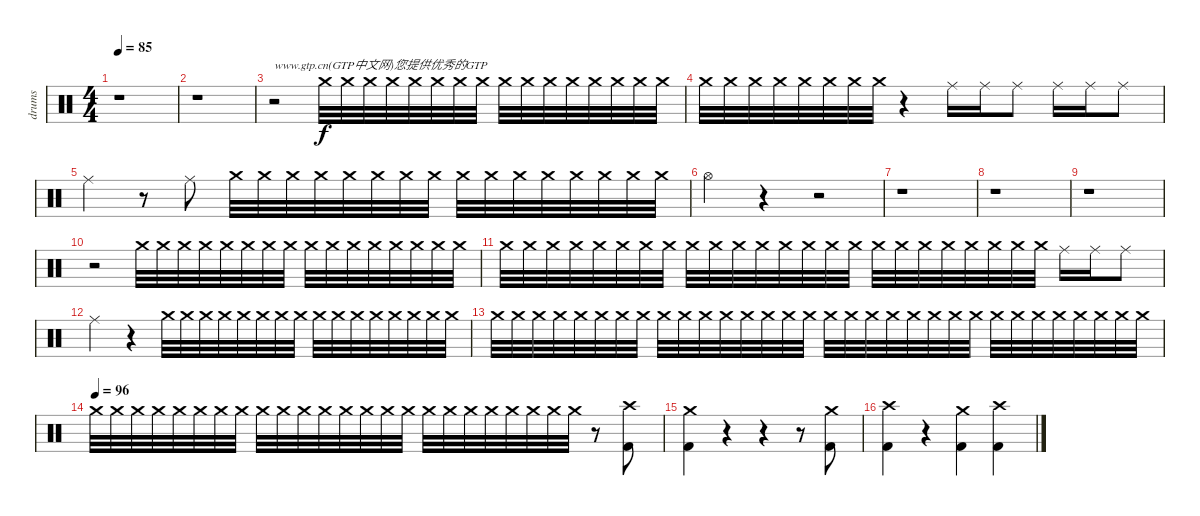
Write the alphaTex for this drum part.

\track ("drums" "drums") {instrument percussion}
\staff {score}
\articulation defaults
\ts (4 4)
\tempo 85
\tempo 80
\tempo 85
\clef neutral
\ks c
r.1{dy f} |
r.1 |
r.2{txt "www.gtp.cn(GTP中文网)您提供优秀的GTP"} "Crash medium (hit)".32 "Crash medium (hit)".32 "Crash medium (hit)".32 "Crash medium (hit)".32 "Crash medium (hit)".32 "Crash medium (hit)".32 "Crash medium (hit)".32 "Crash medium (hit)".32 "Crash medium (hit)".32 "Crash medium (hit)".32 "Crash medium (hit)".32 "Crash medium (hit)".32 "Crash medium (hit)".32 "Crash medium (hit)".32 "Crash medium (hit)".32 "Crash medium (hit)".32 |
"Crash medium (hit)".32 "Crash medium (hit)".32 "Crash medium (hit)".32 "Crash medium (hit)".32 "Crash medium (hit)".32 "Crash medium (hit)".32 "Crash medium (hit)".32 "Crash medium (hit)".32 r.4 "Ride (middle)".16 "Ride (middle)".16 "Ride (middle)".8 "Ride (middle)".16 "Ride (middle)".16 "Ride (middle)".8 |
"Ride (middle)".4 r.8 "Ride (middle)".8 "Crash medium (hit)".32 "Crash medium (hit)".32 "Crash medium (hit)".32 "Crash medium (hit)".32 "Crash medium (hit)".32 "Crash medium (hit)".32 "Crash medium (hit)".32 "Crash medium (hit)".32 "Crash medium (hit)".32 "Crash medium (hit)".32 "Crash medium (hit)".32 "Crash medium (hit)".32 "Crash medium (hit)".32 "Crash medium (hit)".32 "Crash medium (hit)".32 "Crash medium (hit)".32 |
"Hi-Hat (open)".4 r.4 r.2 |
r.1 |
r.1 |
r.1 |
r.2 "Crash medium (hit)".32 "Crash medium (hit)".32 "Crash medium (hit)".32 "Crash medium (hit)".32 "Crash medium (hit)".32 "Crash medium (hit)".32 "Crash medium (hit)".32 "Crash medium (hit)".32 "Crash medium (hit)".32 "Crash medium (hit)".32 "Crash medium (hit)".32 "Crash medium (hit)".32 "Crash medium (hit)".32 "Crash medium (hit)".32 "Crash medium (hit)".32 "Crash medium (hit)".32 |
"Crash medium (hit)".32 "Crash medium (hit)".32 "Crash medium (hit)".32 "Crash medium (hit)".32 "Crash medium (hit)".32 "Crash medium (hit)".32 "Crash medium (hit)".32 "Crash medium (hit)".32 "Crash medium (hit)".32 "Crash medium (hit)".32 "Crash medium (hit)".32 "Crash medium (hit)".32 "Crash medium (hit)".32 "Crash medium (hit)".32 "Crash medium (hit)".32 "Crash medium (hit)".32 "Crash medium (hit)".32 "Crash medium (hit)".32 "Crash medium (hit)".32 "Crash medium (hit)".32 "Crash medium (hit)".32 "Crash medium (hit)".32 "Crash medium (hit)".32 "Crash medium (hit)".32 "Ride (middle)".16 "Ride (middle)".16 "Ride (middle)".8 |
"Ride (middle)".4 r.4 "Crash medium (hit)".32 "Crash medium (hit)".32 "Crash medium (hit)".32 "Crash medium (hit)".32 "Crash medium (hit)".32 "Crash medium (hit)".32 "Crash medium (hit)".32 "Crash medium (hit)".32 "Crash medium (hit)".32 "Crash medium (hit)".32 "Crash medium (hit)".32 "Crash medium (hit)".32 "Crash medium (hit)".32 "Crash medium (hit)".32 "Crash medium (hit)".32 "Crash medium (hit)".32 |
"Crash medium (hit)".32 "Crash medium (hit)".32 "Crash medium (hit)".32 "Crash medium (hit)".32 "Crash medium (hit)".32 "Crash medium (hit)".32 "Crash medium (hit)".32 "Crash medium (hit)".32 "Crash medium (hit)".32 "Crash medium (hit)".32 "Crash medium (hit)".32 "Crash medium (hit)".32 "Crash medium (hit)".32 "Crash medium (hit)".32 "Crash medium (hit)".32 "Crash medium (hit)".32 "Crash medium (hit)".32 "Crash medium (hit)".32 "Crash medium (hit)".32 "Crash medium (hit)".32 "Crash medium (hit)".32 "Crash medium (hit)".32 "Crash medium (hit)".32 "Crash medium (hit)".32 "Crash medium (hit)".32 "Crash medium (hit)".32 "Crash medium (hit)".32 "Crash medium (hit)".32 "Crash medium (hit)".32 "Crash medium (hit)".32 "Crash medium (hit)".32 "Crash medium (hit)".32 |
\tempo (96)
"Crash medium (hit)".32 "Crash medium (hit)".32 "Crash medium (hit)".32 "Crash medium (hit)".32 "Crash medium (hit)".32 "Crash medium (hit)".32 "Crash medium (hit)".32 "Crash medium (hit)".32 "Crash medium (hit)".32 "Crash medium (hit)".32 "Crash medium (hit)".32 "Crash medium (hit)".32 "Crash medium (hit)".32 "Crash medium (hit)".32 "Crash medium (hit)".32 "Crash medium (hit)".32 "Crash medium (hit)".32 "Crash medium (hit)".32 "Crash medium (hit)".32 "Crash medium (hit)".32 "Crash medium (hit)".32 "Crash medium (hit)".32 "Crash medium (hit)".32 "Crash medium (hit)".32 r.8 ("Crash high (hit)" "Kick (hit) 2").8 |
("Crash medium (hit)" "Kick (hit) 2").4 r.4 r.4 r.8 ("Crash medium (hit)" "Kick (hit) 2").8 |
("Crash high (hit)" "Kick (hit) 2").4 r.4 ("Crash medium (hit)" "Kick (hit) 2").4 ("Crash high (hit)" "Kick (hit) 2").4
